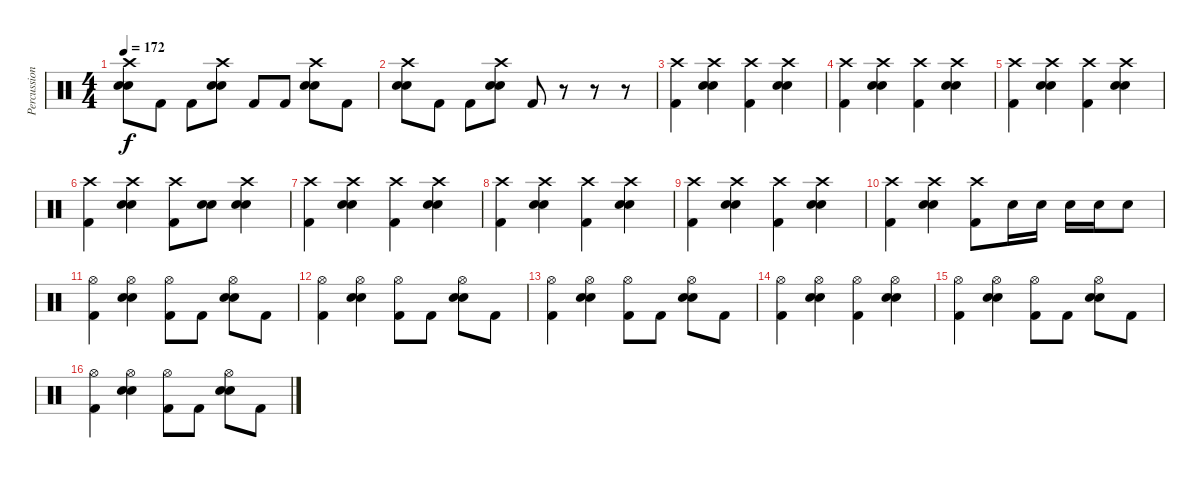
\track ("Percussion" "Percussion") {instrument percussion}
\staff {score}
\articulation defaults
\ts (4 4)
\tempo 172
\clef neutral
\ks c
("Crash high (hit)" "Snare (hit) 2" "Electric Snare (hit)").8{dy f} "Kick (hit) 2".8 "Kick (hit) 2".8 ("Crash high (hit)" "Snare (hit) 2" "Electric Snare (hit)").8 "Kick (hit) 2".8 "Kick (hit) 2".8 ("Crash high (hit)" "Snare (hit) 2" "Electric Snare (hit)").8 "Kick (hit) 2".8 |
("Crash high (hit)" "Snare (hit) 2" "Electric Snare (hit)").8 "Kick (hit) 2".8 "Kick (hit) 2".8 ("Crash high (hit)" "Snare (hit) 2" "Electric Snare (hit)").8 "Kick (hit) 2".8 r.8 r.8 r.8 |
("Crash high (hit)" "Kick (hit) 2").4 ("Crash high (hit)" "Snare (hit) 2" "Electric Snare (hit)").4 ("Crash high (hit)" "Kick (hit) 2").4 ("Crash high (hit)" "Snare (hit) 2" "Electric Snare (hit)").4 |
("Crash high (hit)" "Kick (hit) 2").4 ("Crash high (hit)" "Snare (hit) 2" "Electric Snare (hit)").4 ("Crash high (hit)" "Kick (hit) 2").4 ("Crash high (hit)" "Snare (hit) 2" "Electric Snare (hit)").4 |
("Crash high (hit)" "Kick (hit) 2").4 ("Crash high (hit)" "Snare (hit) 2" "Electric Snare (hit)").4 ("Crash high (hit)" "Kick (hit) 2").4 ("Crash high (hit)" "Snare (hit) 2" "Electric Snare (hit)").4 |
("Crash high (hit)" "Kick (hit) 2").4 ("Crash high (hit)" "Snare (hit) 2" "Electric Snare (hit)").4 ("Crash high (hit)" "Kick (hit) 2").8 ("Snare (hit) 2" "Electric Snare (hit)").8 ("Crash high (hit)" "Snare (hit) 2" "Electric Snare (hit)").4 |
("Crash high (hit)" "Kick (hit) 2").4 ("Crash high (hit)" "Snare (hit) 2" "Electric Snare (hit)").4 ("Crash high (hit)" "Kick (hit) 2").4 ("Crash high (hit)" "Snare (hit) 2" "Electric Snare (hit)").4 |
("Crash high (hit)" "Kick (hit) 2").4 ("Crash high (hit)" "Snare (hit) 2" "Electric Snare (hit)").4 ("Crash high (hit)" "Kick (hit) 2").4 ("Crash high (hit)" "Snare (hit) 2" "Electric Snare (hit)").4 |
("Crash high (hit)" "Kick (hit) 2").4 ("Crash high (hit)" "Snare (hit) 2" "Electric Snare (hit)").4 ("Crash high (hit)" "Kick (hit) 2").4 ("Crash high (hit)" "Snare (hit) 2" "Electric Snare (hit)").4 |
("Crash high (hit)" "Kick (hit) 2").4 ("Crash high (hit)" "Snare (hit) 2" "Electric Snare (hit)").4 ("Crash high (hit)" "Kick (hit) 2").8 "Snare (hit) 2".16 "Snare (hit) 2".16 "Snare (hit) 2".16 "Snare (hit) 2".16 "Snare (hit) 2".8 |
("Hi-Hat (open)" "Kick (hit) 2").4 ("Hi-Hat (open)" "Snare (hit) 2" "Electric Snare (hit)").4 ("Hi-Hat (open)" "Kick (hit) 2").8 "Kick (hit) 2".8 ("Hi-Hat (open)" "Snare (hit) 2" "Electric Snare (hit)").8 "Kick (hit) 2".8 |
("Hi-Hat (open)" "Kick (hit) 2").4 ("Hi-Hat (open)" "Snare (hit) 2" "Electric Snare (hit)").4 ("Hi-Hat (open)" "Kick (hit) 2").8 "Kick (hit) 2".8 ("Hi-Hat (open)" "Snare (hit) 2" "Electric Snare (hit)").8 "Kick (hit) 2".8 |
("Hi-Hat (open)" "Kick (hit) 2").4 ("Hi-Hat (open)" "Snare (hit) 2" "Electric Snare (hit)").4 ("Hi-Hat (open)" "Kick (hit) 2").8 "Kick (hit) 2".8 ("Hi-Hat (open)" "Snare (hit) 2" "Electric Snare (hit)").8 "Kick (hit) 2".8 |
("Hi-Hat (open)" "Kick (hit) 2").4 ("Hi-Hat (open)" "Snare (hit) 2" "Electric Snare (hit)").4 ("Hi-Hat (open)" "Kick (hit) 2").4 ("Hi-Hat (open)" "Snare (hit) 2" "Electric Snare (hit)").4 |
("Hi-Hat (open)" "Kick (hit) 2").4 ("Hi-Hat (open)" "Snare (hit) 2" "Electric Snare (hit)").4 ("Hi-Hat (open)" "Kick (hit) 2").8 "Kick (hit) 2".8 ("Hi-Hat (open)" "Snare (hit) 2" "Electric Snare (hit)").8 "Kick (hit) 2".8 |
("Hi-Hat (open)" "Kick (hit) 2").4 ("Hi-Hat (open)" "Snare (hit) 2" "Electric Snare (hit)").4 ("Hi-Hat (open)" "Kick (hit) 2").8 "Kick (hit) 2".8 ("Hi-Hat (open)" "Snare (hit) 2" "Electric Snare (hit)").8 "Kick (hit) 2".8
